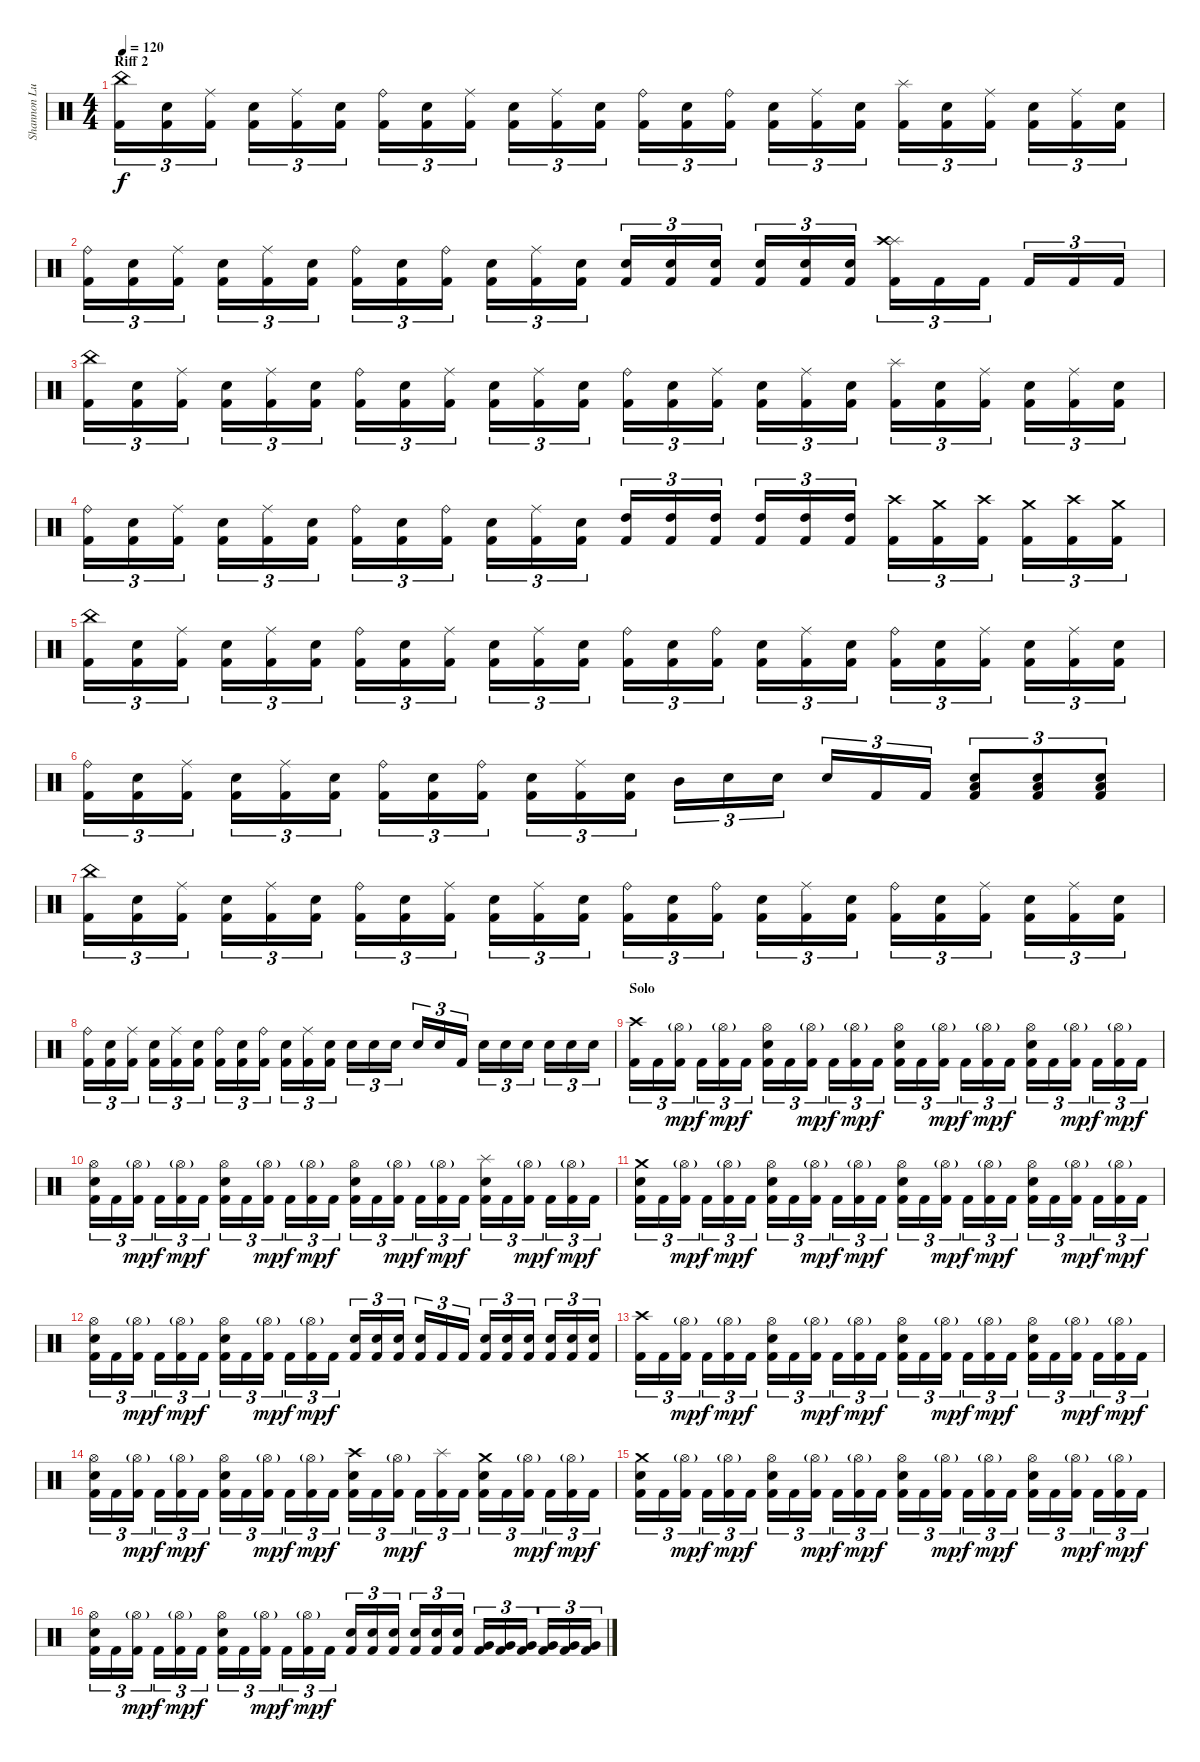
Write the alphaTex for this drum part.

\track ("Shannon Lucas (Drums)" "Shannon Lu") {instrument percussion}
\staff {score}
\articulation defaults
\ts (4 4)
\section ("" "Riff 2")
\tempo 120
\clef neutral
\ks c
("China (hit)" "Kick (hit) 2").16{tu (3 2) dy f} ("Snare (hit) 2" "Kick (hit) 2").16{tu (3 2)} ("Ride (middle)" "Kick (hit) 2").16{tu (3 2)} ("Snare (hit) 2" "Kick (hit) 2").16{tu (3 2)} ("Ride (middle)" "Kick (hit) 2").16{tu (3 2)} ("Snare (hit) 2" "Kick (hit) 2").16{tu (3 2)} ("Ride (bell)" "Kick (hit) 2").16{tu (3 2)} ("Snare (hit) 2" "Kick (hit) 2").16{tu (3 2)} ("Ride (middle)" "Kick (hit) 2").16{tu (3 2)} ("Snare (hit) 2" "Kick (hit) 2").16{tu (3 2)} ("Ride (middle)" "Kick (hit) 2").16{tu (3 2)} ("Snare (hit) 2" "Kick (hit) 2").16{tu (3 2)} ("Ride (bell)" "Kick (hit) 2").16{tu (3 2)} ("Snare (hit) 2" "Kick (hit) 2").16{tu (3 2)} ("Ride (bell)" "Kick (hit) 2").16{tu (3 2)} ("Snare (hit) 2" "Kick (hit) 2").16{tu (3 2)} ("Ride (middle)" "Kick (hit) 2").16{tu (3 2)} ("Snare (hit) 2" "Kick (hit) 2").16{tu (3 2)} ("Splash (hit)" "Kick (hit) 2").16{tu (3 2)} ("Snare (hit) 2" "Kick (hit) 2").16{tu (3 2)} ("Ride (middle)" "Kick (hit) 2").16{tu (3 2)} ("Snare (hit) 2" "Kick (hit) 2").16{tu (3 2)} ("Ride (middle)" "Kick (hit) 2").16{tu (3 2)} ("Snare (hit) 2" "Kick (hit) 2").16{tu (3 2)} |
("Ride (bell)" "Kick (hit) 2").16{tu (3 2)} ("Snare (hit) 2" "Kick (hit) 2").16{tu (3 2)} ("Ride (middle)" "Kick (hit) 2").16{tu (3 2)} ("Snare (hit) 2" "Kick (hit) 2").16{tu (3 2)} ("Ride (middle)" "Kick (hit) 2").16{tu (3 2)} ("Snare (hit) 2" "Kick (hit) 2").16{tu (3 2)} ("Ride (bell)" "Kick (hit) 2").16{tu (3 2)} ("Snare (hit) 2" "Kick (hit) 2").16{tu (3 2)} ("Ride (bell)" "Kick (hit) 2").16{tu (3 2)} ("Snare (hit) 2" "Kick (hit) 2").16{tu (3 2)} ("Ride (middle)" "Kick (hit) 2").16{tu (3 2)} ("Snare (hit) 2" "Kick (hit) 2").16{tu (3 2)} ("Snare (hit) 2" "Kick (hit) 2").16{tu (3 2)} ("Snare (hit) 2" "Kick (hit) 2").16{tu (3 2)} ("Snare (hit) 2" "Kick (hit) 2").16{tu (3 2)} ("Snare (hit) 2" "Kick (hit) 2").16{tu (3 2)} ("Snare (hit) 2" "Kick (hit) 2").16{tu (3 2)} ("Snare (hit) 2" "Kick (hit) 2").16{tu (3 2)} ("Splash (hit)" "Crash high (hit)" "Kick (hit) 2").16{tu (3 2)} "Kick (hit) 2".16{tu (3 2)} "Kick (hit) 2".16{tu (3 2)} "Kick (hit) 2".16{tu (3 2)} "Kick (hit) 2".16{tu (3 2)} "Kick (hit) 2".16{tu (3 2)} |
("China (hit)" "Kick (hit) 2").16{tu (3 2)} ("Snare (hit) 2" "Kick (hit) 2").16{tu (3 2)} ("Ride (middle)" "Kick (hit) 2").16{tu (3 2)} ("Snare (hit) 2" "Kick (hit) 2").16{tu (3 2)} ("Ride (middle)" "Kick (hit) 2").16{tu (3 2)} ("Snare (hit) 2" "Kick (hit) 2").16{tu (3 2)} ("Ride (bell)" "Kick (hit) 2").16{tu (3 2)} ("Snare (hit) 2" "Kick (hit) 2").16{tu (3 2)} ("Ride (middle)" "Kick (hit) 2").16{tu (3 2)} ("Snare (hit) 2" "Kick (hit) 2").16{tu (3 2)} ("Ride (middle)" "Kick (hit) 2").16{tu (3 2)} ("Snare (hit) 2" "Kick (hit) 2").16{tu (3 2)} ("Ride (bell)" "Kick (hit) 2").16{tu (3 2)} ("Snare (hit) 2" "Kick (hit) 2").16{tu (3 2)} ("Ride (middle)" "Kick (hit) 2").16{tu (3 2)} ("Snare (hit) 2" "Kick (hit) 2").16{tu (3 2)} ("Ride (middle)" "Kick (hit) 2").16{tu (3 2)} ("Snare (hit) 2" "Kick (hit) 2").16{tu (3 2)} ("Splash (hit)" "Kick (hit) 2").16{tu (3 2)} ("Snare (hit) 2" "Kick (hit) 2").16{tu (3 2)} ("Ride (middle)" "Kick (hit) 2").16{tu (3 2)} ("Snare (hit) 2" "Kick (hit) 2").16{tu (3 2)} ("Ride (middle)" "Kick (hit) 2").16{tu (3 2)} ("Snare (hit) 2" "Kick (hit) 2").16{tu (3 2)} |
("Ride (bell)" "Kick (hit) 2").16{tu (3 2)} ("Snare (hit) 2" "Kick (hit) 2").16{tu (3 2)} ("Ride (middle)" "Kick (hit) 2").16{tu (3 2)} ("Snare (hit) 2" "Kick (hit) 2").16{tu (3 2)} ("Ride (middle)" "Kick (hit) 2").16{tu (3 2)} ("Snare (hit) 2" "Kick (hit) 2").16{tu (3 2)} ("Ride (bell)" "Kick (hit) 2").16{tu (3 2)} ("Snare (hit) 2" "Kick (hit) 2").16{tu (3 2)} ("Ride (bell)" "Kick (hit) 2").16{tu (3 2)} ("Snare (hit) 2" "Kick (hit) 2").16{tu (3 2)} ("Ride (middle)" "Kick (hit) 2").16{tu (3 2)} ("Snare (hit) 2" "Kick (hit) 2").16{tu (3 2)} ("High Tom (hit)" "Kick (hit) 2").16{tu (3 2)} ("High Tom (hit)" "Kick (hit) 2").16{tu (3 2)} ("High Tom (hit)" "Kick (hit) 2").16{tu (3 2)} ("High Tom (hit)" "Kick (hit) 2").16{tu (3 2)} ("High Tom (hit)" "Kick (hit) 2").16{tu (3 2)} ("High Tom (hit)" "Kick (hit) 2").16{tu (3 2)} ("Crash high (hit)" "Kick (hit) 2").16{tu (3 2)} ("Crash medium (hit)" "Kick (hit) 2").16{tu (3 2)} ("Crash high (hit)" "Kick (hit) 2").16{tu (3 2)} ("Crash medium (hit)" "Kick (hit) 2").16{tu (3 2)} ("Crash high (hit)" "Kick (hit) 2").16{tu (3 2)} ("Crash medium (hit)" "Kick (hit) 2").16{tu (3 2)} |
("China (hit)" "Kick (hit) 2").16{tu (3 2)} ("Snare (hit) 2" "Kick (hit) 2").16{tu (3 2)} ("Ride (middle)" "Kick (hit) 2").16{tu (3 2)} ("Snare (hit) 2" "Kick (hit) 2").16{tu (3 2)} ("Ride (middle)" "Kick (hit) 2").16{tu (3 2)} ("Snare (hit) 2" "Kick (hit) 2").16{tu (3 2)} ("Ride (bell)" "Kick (hit) 2").16{tu (3 2)} ("Snare (hit) 2" "Kick (hit) 2").16{tu (3 2)} ("Ride (middle)" "Kick (hit) 2").16{tu (3 2)} ("Snare (hit) 2" "Kick (hit) 2").16{tu (3 2)} ("Ride (middle)" "Kick (hit) 2").16{tu (3 2)} ("Snare (hit) 2" "Kick (hit) 2").16{tu (3 2)} ("Ride (bell)" "Kick (hit) 2").16{tu (3 2)} ("Snare (hit) 2" "Kick (hit) 2").16{tu (3 2)} ("Ride (bell)" "Kick (hit) 2").16{tu (3 2)} ("Snare (hit) 2" "Kick (hit) 2").16{tu (3 2)} ("Ride (middle)" "Kick (hit) 2").16{tu (3 2)} ("Snare (hit) 2" "Kick (hit) 2").16{tu (3 2)} ("Ride (bell)" "Kick (hit) 2").16{tu (3 2)} ("Snare (hit) 2" "Kick (hit) 2").16{tu (3 2)} ("Ride (middle)" "Kick (hit) 2").16{tu (3 2)} ("Snare (hit) 2" "Kick (hit) 2").16{tu (3 2)} ("Ride (middle)" "Kick (hit) 2").16{tu (3 2)} ("Snare (hit) 2" "Kick (hit) 2").16{tu (3 2)} |
("Ride (bell)" "Kick (hit) 2").16{tu (3 2)} ("Snare (hit) 2" "Kick (hit) 2").16{tu (3 2)} ("Ride (middle)" "Kick (hit) 2").16{tu (3 2)} ("Snare (hit) 2" "Kick (hit) 2").16{tu (3 2)} ("Ride (middle)" "Kick (hit) 2").16{tu (3 2)} ("Snare (hit) 2" "Kick (hit) 2").16{tu (3 2)} ("Ride (bell)" "Kick (hit) 2").16{tu (3 2)} ("Snare (hit) 2" "Kick (hit) 2").16{tu (3 2)} ("Ride (bell)" "Kick (hit) 2").16{tu (3 2)} ("Snare (hit) 2" "Kick (hit) 2").16{tu (3 2)} ("Ride (middle)" "Kick (hit) 2").16{tu (3 2)} ("Snare (hit) 2" "Kick (hit) 2").16{tu (3 2)} "Mid Tom (hit)".16{tu (3 2)} "Snare (hit) 2".16{tu (3 2)} "Snare (hit) 2".16{tu (3 2)} "Snare (hit) 2".16{tu (3 2)} "Kick (hit) 2".16{tu (3 2)} "Kick (hit) 2".16{tu (3 2)} ("Low Floor Tom (hit)" "Snare (hit) 2" "Kick (hit) 2").8{tu (3 2)} ("Low Floor Tom (hit)" "Snare (hit) 2" "Kick (hit) 2").8{tu (3 2)} ("Low Floor Tom (hit)" "Snare (hit) 2" "Kick (hit) 2").8{tu (3 2)} |
("China (hit)" "Kick (hit) 2").16{tu (3 2)} ("Snare (hit) 2" "Kick (hit) 2").16{tu (3 2)} ("Ride (middle)" "Kick (hit) 2").16{tu (3 2)} ("Snare (hit) 2" "Kick (hit) 2").16{tu (3 2)} ("Ride (middle)" "Kick (hit) 2").16{tu (3 2)} ("Snare (hit) 2" "Kick (hit) 2").16{tu (3 2)} ("Ride (bell)" "Kick (hit) 2").16{tu (3 2)} ("Snare (hit) 2" "Kick (hit) 2").16{tu (3 2)} ("Ride (middle)" "Kick (hit) 2").16{tu (3 2)} ("Snare (hit) 2" "Kick (hit) 2").16{tu (3 2)} ("Ride (middle)" "Kick (hit) 2").16{tu (3 2)} ("Snare (hit) 2" "Kick (hit) 2").16{tu (3 2)} ("Ride (bell)" "Kick (hit) 2").16{tu (3 2)} ("Snare (hit) 2" "Kick (hit) 2").16{tu (3 2)} ("Ride (bell)" "Kick (hit) 2").16{tu (3 2)} ("Snare (hit) 2" "Kick (hit) 2").16{tu (3 2)} ("Ride (middle)" "Kick (hit) 2").16{tu (3 2)} ("Snare (hit) 2" "Kick (hit) 2").16{tu (3 2)} ("Ride (bell)" "Kick (hit) 2").16{tu (3 2)} ("Snare (hit) 2" "Kick (hit) 2").16{tu (3 2)} ("Ride (middle)" "Kick (hit) 2").16{tu (3 2)} ("Snare (hit) 2" "Kick (hit) 2").16{tu (3 2)} ("Ride (middle)" "Kick (hit) 2").16{tu (3 2)} ("Snare (hit) 2" "Kick (hit) 2").16{tu (3 2)} |
("Ride (bell)" "Kick (hit) 2").16{tu (3 2)} ("Snare (hit) 2" "Kick (hit) 2").16{tu (3 2)} ("Ride (middle)" "Kick (hit) 2").16{tu (3 2)} ("Snare (hit) 2" "Kick (hit) 2").16{tu (3 2)} ("Ride (middle)" "Kick (hit) 2").16{tu (3 2)} ("Snare (hit) 2" "Kick (hit) 2").16{tu (3 2)} ("Ride (bell)" "Kick (hit) 2").16{tu (3 2)} ("Snare (hit) 2" "Kick (hit) 2").16{tu (3 2)} ("Ride (bell)" "Kick (hit) 2").16{tu (3 2)} ("Snare (hit) 2" "Kick (hit) 2").16{tu (3 2)} ("Ride (middle)" "Kick (hit) 2").16{tu (3 2)} ("Snare (hit) 2" "Kick (hit) 2").16{tu (3 2)} "Snare (hit) 2".16{tu (3 2)} "Snare (hit) 2".16{tu (3 2)} "Snare (hit) 2".16{tu (3 2)} "Snare (hit) 2".16{tu (3 2)} "Snare (hit) 2".16{tu (3 2)} "Kick (hit) 2".16{tu (3 2)} "Snare (hit) 2".16{tu (3 2)} "Snare (hit) 2".16{tu (3 2)} "Snare (hit) 2".16{tu (3 2)} "Snare (hit) 2".16{tu (3 2)} "Snare (hit) 2".16{tu (3 2)} "Snare (hit) 2".16{tu (3 2)} |
\section ("" "Solo")
("Crash high (hit)" "Kick (hit) 2").16{tu (3 2)} "Kick (hit) 2".16{tu (3 2)} ("Hi-Hat (open)"{g} "Kick (hit) 2").16{tu (3 2) dy mp} "Kick (hit) 2".16{tu (3 2) dy f} ("Hi-Hat (open)"{g} "Kick (hit) 2").16{tu (3 2) dy mp} "Kick (hit) 2".16{tu (3 2) dy f} ("Snare (hit) 2" "Hi-Hat (open)" "Kick (hit) 2").16{tu (3 2)} "Kick (hit) 2".16{tu (3 2)} ("Hi-Hat (open)"{g} "Kick (hit) 2").16{tu (3 2) dy mp} "Kick (hit) 2".16{tu (3 2) dy f} ("Hi-Hat (open)"{g} "Kick (hit) 2").16{tu (3 2) dy mp} "Kick (hit) 2".16{tu (3 2) dy f} ("Snare (hit) 2" "Hi-Hat (open)" "Kick (hit) 2").16{tu (3 2)} "Kick (hit) 2".16{tu (3 2)} ("Hi-Hat (open)"{g} "Kick (hit) 2").16{tu (3 2) dy mp} "Kick (hit) 2".16{tu (3 2) dy f} ("Hi-Hat (open)"{g} "Kick (hit) 2").16{tu (3 2) dy mp} "Kick (hit) 2".16{tu (3 2) dy f} ("Snare (hit) 2" "Hi-Hat (open)" "Kick (hit) 2").16{tu (3 2)} "Kick (hit) 2".16{tu (3 2)} ("Hi-Hat (open)"{g} "Kick (hit) 2").16{tu (3 2) dy mp} "Kick (hit) 2".16{tu (3 2) dy f} ("Hi-Hat (open)"{g} "Kick (hit) 2").16{tu (3 2) dy mp} "Kick (hit) 2".16{tu (3 2) dy f} |
("Hi-Hat (open)" "Snare (hit) 2" "Kick (hit) 2").16{tu (3 2)} "Kick (hit) 2".16{tu (3 2)} ("Hi-Hat (open)"{g} "Kick (hit) 2").16{tu (3 2) dy mp} "Kick (hit) 2".16{tu (3 2) dy f} ("Hi-Hat (open)"{g} "Kick (hit) 2").16{tu (3 2) dy mp} "Kick (hit) 2".16{tu (3 2) dy f} ("Snare (hit) 2" "Hi-Hat (open)" "Kick (hit) 2").16{tu (3 2)} "Kick (hit) 2".16{tu (3 2)} ("Hi-Hat (open)"{g} "Kick (hit) 2").16{tu (3 2) dy mp} "Kick (hit) 2".16{tu (3 2) dy f} ("Hi-Hat (open)"{g} "Kick (hit) 2").16{tu (3 2) dy mp} "Kick (hit) 2".16{tu (3 2) dy f} ("Snare (hit) 2" "Hi-Hat (open)" "Kick (hit) 2").16{tu (3 2)} "Kick (hit) 2".16{tu (3 2)} ("Hi-Hat (open)"{g} "Kick (hit) 2").16{tu (3 2) dy mp} "Kick (hit) 2".16{tu (3 2) dy f} ("Hi-Hat (open)"{g} "Kick (hit) 2").16{tu (3 2) dy mp} "Kick (hit) 2".16{tu (3 2) dy f} ("Snare (hit) 2" "Splash (hit)" "Kick (hit) 2").16{tu (3 2)} "Kick (hit) 2".16{tu (3 2)} ("Hi-Hat (open)"{g} "Kick (hit) 2").16{tu (3 2) dy mp} "Kick (hit) 2".16{tu (3 2) dy f} ("Hi-Hat (open)"{g} "Kick (hit) 2").16{tu (3 2) dy mp} "Kick (hit) 2".16{tu (3 2) dy f} |
("Crash medium (hit)" "Snare (hit) 2" "Kick (hit) 2").16{tu (3 2)} "Kick (hit) 2".16{tu (3 2)} ("Hi-Hat (open)"{g} "Kick (hit) 2").16{tu (3 2) dy mp} "Kick (hit) 2".16{tu (3 2) dy f} ("Hi-Hat (open)"{g} "Kick (hit) 2").16{tu (3 2) dy mp} "Kick (hit) 2".16{tu (3 2) dy f} ("Snare (hit) 2" "Hi-Hat (open)" "Kick (hit) 2").16{tu (3 2)} "Kick (hit) 2".16{tu (3 2)} ("Hi-Hat (open)"{g} "Kick (hit) 2").16{tu (3 2) dy mp} "Kick (hit) 2".16{tu (3 2) dy f} ("Hi-Hat (open)"{g} "Kick (hit) 2").16{tu (3 2) dy mp} "Kick (hit) 2".16{tu (3 2) dy f} ("Snare (hit) 2" "Hi-Hat (open)" "Kick (hit) 2").16{tu (3 2)} "Kick (hit) 2".16{tu (3 2)} ("Hi-Hat (open)"{g} "Kick (hit) 2").16{tu (3 2) dy mp} "Kick (hit) 2".16{tu (3 2) dy f} ("Hi-Hat (open)"{g} "Kick (hit) 2").16{tu (3 2) dy mp} "Kick (hit) 2".16{tu (3 2) dy f} ("Snare (hit) 2" "Hi-Hat (open)" "Kick (hit) 2").16{tu (3 2)} "Kick (hit) 2".16{tu (3 2)} ("Hi-Hat (open)"{g} "Kick (hit) 2").16{tu (3 2) dy mp} "Kick (hit) 2".16{tu (3 2) dy f} ("Hi-Hat (open)"{g} "Kick (hit) 2").16{tu (3 2) dy mp} "Kick (hit) 2".16{tu (3 2) dy f} |
("Hi-Hat (open)" "Snare (hit) 2" "Kick (hit) 2").16{tu (3 2)} "Kick (hit) 2".16{tu (3 2)} ("Hi-Hat (open)"{g} "Kick (hit) 2").16{tu (3 2) dy mp} "Kick (hit) 2".16{tu (3 2) dy f} ("Hi-Hat (open)"{g} "Kick (hit) 2").16{tu (3 2) dy mp} "Kick (hit) 2".16{tu (3 2) dy f} ("Snare (hit) 2" "Hi-Hat (open)" "Kick (hit) 2").16{tu (3 2)} "Kick (hit) 2".16{tu (3 2)} ("Hi-Hat (open)"{g} "Kick (hit) 2").16{tu (3 2) dy mp} "Kick (hit) 2".16{tu (3 2) dy f} ("Hi-Hat (open)"{g} "Kick (hit) 2").16{tu (3 2) dy mp} "Kick (hit) 2".16{tu (3 2) dy f} ("Snare (hit) 2" "Kick (hit) 2").16{tu (3 2)} ("Snare (hit) 2" "Kick (hit) 2").16{tu (3 2)} ("Snare (hit) 2" "Kick (hit) 2").16{tu (3 2)} ("Snare (hit) 2" "Kick (hit) 2").16{tu (3 2)} "Kick (hit) 2".16{tu (3 2)} "Kick (hit) 2".16{tu (3 2)} ("Snare (hit) 2" "Kick (hit) 2").16{tu (3 2)} ("Snare (hit) 2" "Kick (hit) 2").16{tu (3 2)} ("Snare (hit) 2" "Kick (hit) 2").16{tu (3 2)} ("Snare (hit) 2" "Kick (hit) 2").16{tu (3 2)} ("Snare (hit) 2" "Kick (hit) 2").16{tu (3 2)} ("Snare (hit) 2" "Kick (hit) 2").16{tu (3 2)} |
("Crash high (hit)" "Kick (hit) 2").16{tu (3 2)} "Kick (hit) 2".16{tu (3 2)} ("Hi-Hat (open)"{g} "Kick (hit) 2").16{tu (3 2) dy mp} "Kick (hit) 2".16{tu (3 2) dy f} ("Hi-Hat (open)"{g} "Kick (hit) 2").16{tu (3 2) dy mp} "Kick (hit) 2".16{tu (3 2) dy f} ("Snare (hit) 2" "Hi-Hat (open)" "Kick (hit) 2").16{tu (3 2)} "Kick (hit) 2".16{tu (3 2)} ("Hi-Hat (open)"{g} "Kick (hit) 2").16{tu (3 2) dy mp} "Kick (hit) 2".16{tu (3 2) dy f} ("Hi-Hat (open)"{g} "Kick (hit) 2").16{tu (3 2) dy mp} "Kick (hit) 2".16{tu (3 2) dy f} ("Snare (hit) 2" "Hi-Hat (open)" "Kick (hit) 2").16{tu (3 2)} "Kick (hit) 2".16{tu (3 2)} ("Hi-Hat (open)"{g} "Kick (hit) 2").16{tu (3 2) dy mp} "Kick (hit) 2".16{tu (3 2) dy f} ("Hi-Hat (open)"{g} "Kick (hit) 2").16{tu (3 2) dy mp} "Kick (hit) 2".16{tu (3 2) dy f} ("Snare (hit) 2" "Hi-Hat (open)" "Kick (hit) 2").16{tu (3 2)} "Kick (hit) 2".16{tu (3 2)} ("Hi-Hat (open)"{g} "Kick (hit) 2").16{tu (3 2) dy mp} "Kick (hit) 2".16{tu (3 2) dy f} ("Hi-Hat (open)"{g} "Kick (hit) 2").16{tu (3 2) dy mp} "Kick (hit) 2".16{tu (3 2) dy f} |
("Hi-Hat (open)" "Snare (hit) 2" "Kick (hit) 2").16{tu (3 2)} "Kick (hit) 2".16{tu (3 2)} ("Hi-Hat (open)"{g} "Kick (hit) 2").16{tu (3 2) dy mp} "Kick (hit) 2".16{tu (3 2) dy f} ("Hi-Hat (open)"{g} "Kick (hit) 2").16{tu (3 2) dy mp} "Kick (hit) 2".16{tu (3 2) dy f} ("Snare (hit) 2" "Hi-Hat (open)" "Kick (hit) 2").16{tu (3 2)} "Kick (hit) 2".16{tu (3 2)} ("Hi-Hat (open)"{g} "Kick (hit) 2").16{tu (3 2) dy mp} "Kick (hit) 2".16{tu (3 2) dy f} ("Hi-Hat (open)"{g} "Kick (hit) 2").16{tu (3 2) dy mp} "Kick (hit) 2".16{tu (3 2) dy f} ("Snare (hit) 2" "Crash high (hit)" "Kick (hit) 2").16{tu (3 2)} "Kick (hit) 2".16{tu (3 2)} ("Hi-Hat (open)"{g} "Kick (hit) 2").16{tu (3 2) dy mp} "Kick (hit) 2".16{tu (3 2) dy f} ("Splash (hit)" "Kick (hit) 2").16{tu (3 2)} "Kick (hit) 2".16{tu (3 2)} ("Snare (hit) 2" "Crash medium (hit)" "Kick (hit) 2").16{tu (3 2)} "Kick (hit) 2".16{tu (3 2)} ("Hi-Hat (open)"{g} "Kick (hit) 2").16{tu (3 2) dy mp} "Kick (hit) 2".16{tu (3 2) dy f} ("Hi-Hat (open)"{g} "Kick (hit) 2").16{tu (3 2) dy mp} "Kick (hit) 2".16{tu (3 2) dy f} |
("Crash medium (hit)" "Snare (hit) 2" "Kick (hit) 2").16{tu (3 2)} "Kick (hit) 2".16{tu (3 2)} ("Hi-Hat (open)"{g} "Kick (hit) 2").16{tu (3 2) dy mp} "Kick (hit) 2".16{tu (3 2) dy f} ("Hi-Hat (open)"{g} "Kick (hit) 2").16{tu (3 2) dy mp} "Kick (hit) 2".16{tu (3 2) dy f} ("Snare (hit) 2" "Hi-Hat (open)" "Kick (hit) 2").16{tu (3 2)} "Kick (hit) 2".16{tu (3 2)} ("Hi-Hat (open)"{g} "Kick (hit) 2").16{tu (3 2) dy mp} "Kick (hit) 2".16{tu (3 2) dy f} ("Hi-Hat (open)"{g} "Kick (hit) 2").16{tu (3 2) dy mp} "Kick (hit) 2".16{tu (3 2) dy f} ("Snare (hit) 2" "Hi-Hat (open)" "Kick (hit) 2").16{tu (3 2)} "Kick (hit) 2".16{tu (3 2)} ("Hi-Hat (open)"{g} "Kick (hit) 2").16{tu (3 2) dy mp} "Kick (hit) 2".16{tu (3 2) dy f} ("Hi-Hat (open)"{g} "Kick (hit) 2").16{tu (3 2) dy mp} "Kick (hit) 2".16{tu (3 2) dy f} ("Snare (hit) 2" "Hi-Hat (open)" "Kick (hit) 2").16{tu (3 2)} "Kick (hit) 2".16{tu (3 2)} ("Hi-Hat (open)"{g} "Kick (hit) 2").16{tu (3 2) dy mp} "Kick (hit) 2".16{tu (3 2) dy f} ("Hi-Hat (open)"{g} "Kick (hit) 2").16{tu (3 2) dy mp} "Kick (hit) 2".16{tu (3 2) dy f} |
("Hi-Hat (open)" "Snare (hit) 2" "Kick (hit) 2").16{tu (3 2)} "Kick (hit) 2".16{tu (3 2)} ("Hi-Hat (open)"{g} "Kick (hit) 2").16{tu (3 2) dy mp} "Kick (hit) 2".16{tu (3 2) dy f} ("Hi-Hat (open)"{g} "Kick (hit) 2").16{tu (3 2) dy mp} "Kick (hit) 2".16{tu (3 2) dy f} ("Snare (hit) 2" "Hi-Hat (open)" "Kick (hit) 2").16{tu (3 2)} "Kick (hit) 2".16{tu (3 2)} ("Hi-Hat (open)"{g} "Kick (hit) 2").16{tu (3 2) dy mp} "Kick (hit) 2".16{tu (3 2) dy f} ("Hi-Hat (open)"{g} "Kick (hit) 2").16{tu (3 2) dy mp} "Kick (hit) 2".16{tu (3 2) dy f} ("Snare (hit) 2" "Kick (hit) 2").16{tu (3 2)} ("Snare (hit) 2" "Kick (hit) 2").16{tu (3 2)} ("Snare (hit) 2" "Kick (hit) 2").16{tu (3 2)} ("Snare (hit) 2" "Kick (hit) 2").16{tu (3 2)} ("Snare (hit) 2" "Kick (hit) 2").16{tu (3 2)} ("Snare (hit) 2" "Kick (hit) 2").16{tu (3 2)} ("Very Low Tom (hit)" "Kick (hit) 2").16{tu (3 2)} ("Very Low Tom (hit)" "Kick (hit) 2").16{tu (3 2)} ("Very Low Tom (hit)" "Kick (hit) 2").16{tu (3 2)} ("Very Low Tom (hit)" "Kick (hit) 2").16{tu (3 2)} ("Very Low Tom (hit)" "Kick (hit) 2").16{tu (3 2)} ("Very Low Tom (hit)" "Kick (hit) 2").16{tu (3 2)}
